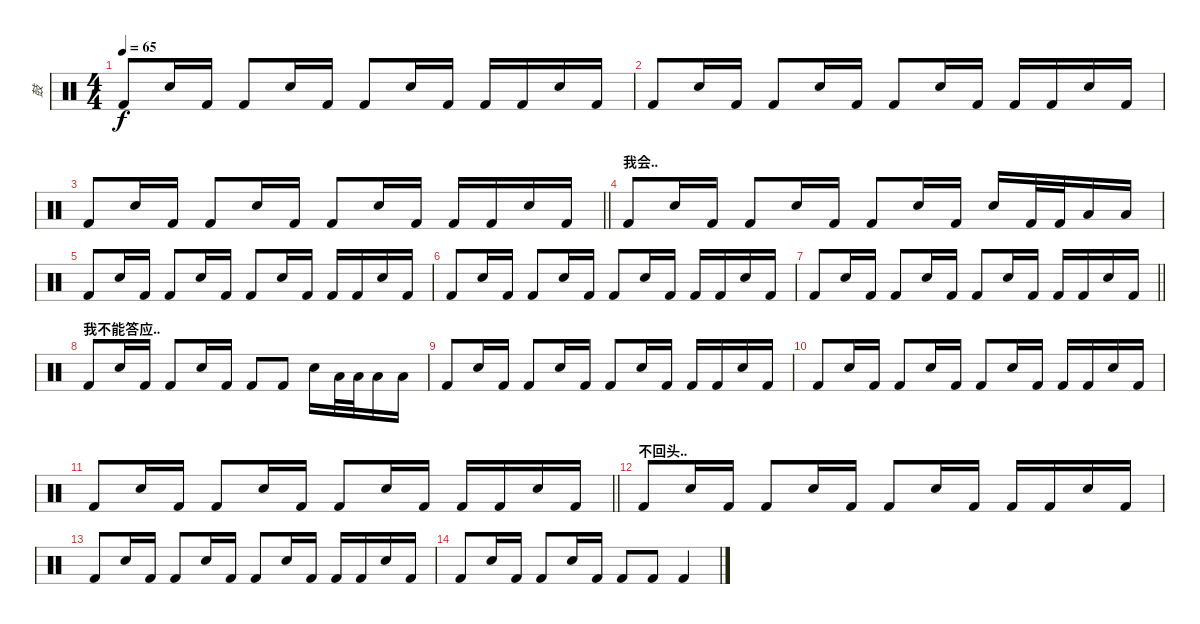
\track ("鼓" "鼓") {instrument percussion}
\staff {score}
\articulation defaults
\ts (4 4)
\tempo 65
\clef neutral
\ks c "Kick (hit) 2".8{dy f} "Snare (hit) 2".16 "Kick (hit) 2".16 "Kick (hit) 2".8 "Snare (hit) 2".16 "Kick (hit) 2".16 "Kick (hit) 2".8 "Snare (hit) 2".16 "Kick (hit) 2".16 "Kick (hit) 2".16 "Kick (hit) 2".16 "Snare (hit) 2".16 "Kick (hit) 2".16
|
"Kick (hit) 2".8 "Snare (hit) 2".16 "Kick (hit) 2".16 "Kick (hit) 2".8 "Snare (hit) 2".16 "Kick (hit) 2".16 "Kick (hit) 2".8 "Snare (hit) 2".16 "Kick (hit) 2".16 "Kick (hit) 2".16 "Kick (hit) 2".16 "Snare (hit) 2".16 "Kick (hit) 2".16 |
\barLineRight lightlight "Kick (hit) 2".8 "Snare (hit) 2".16 "Kick (hit) 2".16 "Kick (hit) 2".8 "Snare (hit) 2".16 "Kick (hit) 2".16 "Kick (hit) 2".8 "Snare (hit) 2".16 "Kick (hit) 2".16 "Kick (hit) 2".16 "Kick (hit) 2".16 "Snare (hit) 2".16 "Kick (hit) 2".16
|
\section ("" "我会..")
"Kick (hit) 2".8 "Snare (hit) 2".16 "Kick (hit) 2".16 "Kick (hit) 2".8 "Snare (hit) 2".16 "Kick (hit) 2".16 "Kick (hit) 2".8 "Snare (hit) 2".16 "Kick (hit) 2".16 "Snare (hit) 2".16 "Kick (hit) 2".32 "Kick (hit) 2".32 "Low Tom (hit)".16 "Low Floor Tom (hit)".16 |
"Kick (hit) 2".8 "Snare (hit) 2".16 "Kick (hit) 2".16 "Kick (hit) 2".8 "Snare (hit) 2".16 "Kick (hit) 2".16 "Kick (hit) 2".8 "Snare (hit) 2".16 "Kick (hit) 2".16 "Kick (hit) 2".16 "Kick (hit) 2".16 "Snare (hit) 2".16 "Kick (hit) 2".16 |
"Kick (hit) 2".8 "Snare (hit) 2".16 "Kick (hit) 2".16 "Kick (hit) 2".8 "Snare (hit) 2".16 "Kick (hit) 2".16 "Kick (hit) 2".8 "Snare (hit) 2".16 "Kick (hit) 2".16 "Kick (hit) 2".16 "Kick (hit) 2".16 "Snare (hit) 2".16 "Kick (hit) 2".16 |
\barLineRight lightlight "Kick (hit) 2".8 "Snare (hit) 2".16 "Kick (hit) 2".16 "Kick (hit) 2".8 "Snare (hit) 2".16 "Kick (hit) 2".16 "Kick (hit) 2".8 "Snare (hit) 2".16 "Kick (hit) 2".16 "Kick (hit) 2".16 "Kick (hit) 2".16 "Snare (hit) 2".16 "Kick (hit) 2".16
|
\section ("" "我不能答应..")
"Kick (hit) 2".8 "Snare (hit) 2".16 "Kick (hit) 2".16 "Kick (hit) 2".8 "Snare (hit) 2".16 "Kick (hit) 2".16 "Kick (hit) 2".8 "Kick (hit) 2".8 "Snare (hit) 2".16 "Low Tom (hit)".32 "Low Tom (hit)".32 "Low Floor Tom (hit)".16 "Low Floor Tom (hit)".16 |
"Kick (hit) 2".8 "Snare (hit) 2".16 "Kick (hit) 2".16 "Kick (hit) 2".8 "Snare (hit) 2".16 "Kick (hit) 2".16 "Kick (hit) 2".8 "Snare (hit) 2".16 "Kick (hit) 2".16 "Kick (hit) 2".16 "Kick (hit) 2".16 "Snare (hit) 2".16 "Kick (hit) 2".16 |
"Kick (hit) 2".8 "Snare (hit) 2".16 "Kick (hit) 2".16 "Kick (hit) 2".8 "Snare (hit) 2".16 "Kick (hit) 2".16 "Kick (hit) 2".8 "Snare (hit) 2".16 "Kick (hit) 2".16 "Kick (hit) 2".16 "Kick (hit) 2".16 "Snare (hit) 2".16 "Kick (hit) 2".16 |
\barLineRight lightlight "Kick (hit) 2".8 "Snare (hit) 2".16 "Kick (hit) 2".16 "Kick (hit) 2".8 "Snare (hit) 2".16 "Kick (hit) 2".16 "Kick (hit) 2".8 "Snare (hit) 2".16 "Kick (hit) 2".16 "Kick (hit) 2".16 "Kick (hit) 2".16 "Snare (hit) 2".16 "Kick (hit) 2".16
|
\section ("" "不回头..")
"Kick (hit) 2".8 "Snare (hit) 2".16 "Kick (hit) 2".16 "Kick (hit) 2".8 "Snare (hit) 2".16 "Kick (hit) 2".16 "Kick (hit) 2".8 "Snare (hit) 2".16 "Kick (hit) 2".16 "Kick (hit) 2".16 "Kick (hit) 2".16 "Snare (hit) 2".16 "Kick (hit) 2".16 |
"Kick (hit) 2".8 "Snare (hit) 2".16 "Kick (hit) 2".16 "Kick (hit) 2".8 "Snare (hit) 2".16 "Kick (hit) 2".16 "Kick (hit) 2".8 "Snare (hit) 2".16 "Kick (hit) 2".16 "Kick (hit) 2".16 "Kick (hit) 2".16 "Snare (hit) 2".16 "Kick (hit) 2".16 |
"Kick (hit) 2".8 "Snare (hit) 2".16 "Kick (hit) 2".16 "Kick (hit) 2".8 "Snare (hit) 2".16 "Kick (hit) 2".16 "Kick (hit) 2".8 "Kick (hit) 2".8 "Kick (hit) 2".4
